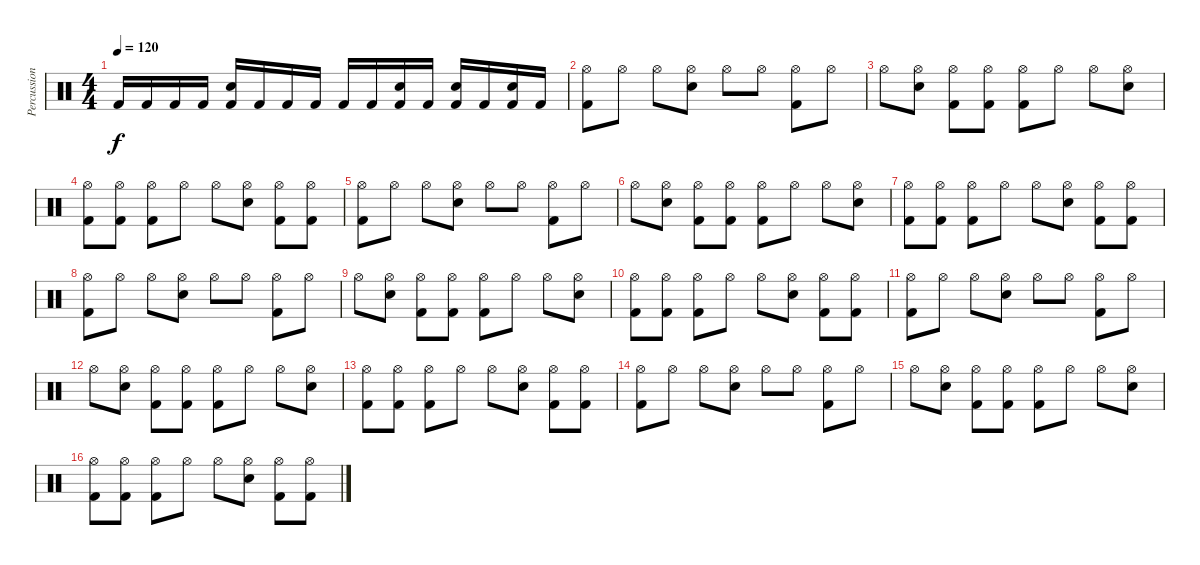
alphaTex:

\track ("Percussion" "Percussion") {instrument percussion}
\staff {score}
\articulation defaults
\ts (4 4)
\tempo 120
\clef neutral
\ks c "Kick (hit) 2".16{dy f} "Kick (hit) 2".16 "Kick (hit) 2".16 "Kick (hit) 2".16
("Electric Snare (hit)" "Kick (hit) 2").16 "Kick (hit) 2".16 "Kick (hit) 2".16 "Kick (hit) 2".16 "Kick (hit) 2".16 "Kick (hit) 2".16 ("Electric Snare (hit)" "Kick (hit) 2").16 "Kick (hit) 2".16 ("Electric Snare (hit)" "Kick (hit) 2").16 "Kick (hit) 2".16 ("Electric Snare (hit)" "Kick (hit) 2").16 "Kick (hit) 2".16 |
("Hi-Hat (open)" "Kick (hit) 2").8 "Hi-Hat (open)".8 "Hi-Hat (open)".8 ("Hi-Hat (open)" "Electric Snare (hit)").8 "Hi-Hat (open)".8 "Hi-Hat (open)".8 ("Hi-Hat (open)" "Kick (hit) 2").8 "Hi-Hat (open)".8 |
"Hi-Hat (open)".8 ("Hi-Hat (open)" "Electric Snare (hit)").8 ("Hi-Hat (open)" "Kick (hit) 2").8 ("Hi-Hat (open)" "Kick (hit) 2").8 ("Hi-Hat (open)" "Kick (hit) 2").8 "Hi-Hat (open)".8 "Hi-Hat (open)".8 ("Hi-Hat (open)" "Electric Snare (hit)").8 |
("Hi-Hat (open)" "Kick (hit) 2").8 ("Hi-Hat (open)" "Kick (hit) 2").8 ("Hi-Hat (open)" "Kick (hit) 2").8 "Hi-Hat (open)".8 "Hi-Hat (open)".8 ("Hi-Hat (open)" "Electric Snare (hit)").8 ("Hi-Hat (open)" "Kick (hit) 2").8 ("Hi-Hat (open)" "Kick (hit) 2").8 |
("Hi-Hat (open)" "Kick (hit) 2").8 "Hi-Hat (open)".8 "Hi-Hat (open)".8 ("Hi-Hat (open)" "Electric Snare (hit)").8 "Hi-Hat (open)".8 "Hi-Hat (open)".8 ("Hi-Hat (open)" "Kick (hit) 2").8 "Hi-Hat (open)".8 |
"Hi-Hat (open)".8 ("Hi-Hat (open)" "Electric Snare (hit)").8 ("Hi-Hat (open)" "Kick (hit) 2").8 ("Hi-Hat (open)" "Kick (hit) 2").8 ("Hi-Hat (open)" "Kick (hit) 2").8 "Hi-Hat (open)".8 "Hi-Hat (open)".8 ("Hi-Hat (open)" "Electric Snare (hit)").8 |
("Hi-Hat (open)" "Kick (hit) 2").8 ("Hi-Hat (open)" "Kick (hit) 2").8 ("Hi-Hat (open)" "Kick (hit) 2").8 "Hi-Hat (open)".8 "Hi-Hat (open)".8 ("Hi-Hat (open)" "Electric Snare (hit)").8 ("Hi-Hat (open)" "Kick (hit) 2").8 ("Hi-Hat (open)" "Kick (hit) 2").8 |
("Hi-Hat (open)" "Kick (hit) 2").8 "Hi-Hat (open)".8 "Hi-Hat (open)".8 ("Hi-Hat (open)" "Electric Snare (hit)").8 "Hi-Hat (open)".8 "Hi-Hat (open)".8 ("Hi-Hat (open)" "Kick (hit) 2").8 "Hi-Hat (open)".8 |
"Hi-Hat (open)".8 ("Hi-Hat (open)" "Electric Snare (hit)").8 ("Hi-Hat (open)" "Kick (hit) 2").8 ("Hi-Hat (open)" "Kick (hit) 2").8 ("Hi-Hat (open)" "Kick (hit) 2").8 "Hi-Hat (open)".8 "Hi-Hat (open)".8 ("Hi-Hat (open)" "Electric Snare (hit)").8 |
("Hi-Hat (open)" "Kick (hit) 2").8 ("Hi-Hat (open)" "Kick (hit) 2").8 ("Hi-Hat (open)" "Kick (hit) 2").8 "Hi-Hat (open)".8 "Hi-Hat (open)".8 ("Hi-Hat (open)" "Electric Snare (hit)").8 ("Hi-Hat (open)" "Kick (hit) 2").8 ("Hi-Hat (open)" "Kick (hit) 2").8 |
("Hi-Hat (open)" "Kick (hit) 2").8 "Hi-Hat (open)".8 "Hi-Hat (open)".8 ("Hi-Hat (open)" "Electric Snare (hit)").8 "Hi-Hat (open)".8 "Hi-Hat (open)".8 ("Hi-Hat (open)" "Kick (hit) 2").8 "Hi-Hat (open)".8 |
"Hi-Hat (open)".8 ("Hi-Hat (open)" "Electric Snare (hit)").8 ("Hi-Hat (open)" "Kick (hit) 2").8 ("Hi-Hat (open)" "Kick (hit) 2").8 ("Hi-Hat (open)" "Kick (hit) 2").8 "Hi-Hat (open)".8 "Hi-Hat (open)".8 ("Hi-Hat (open)" "Electric Snare (hit)").8 |
("Hi-Hat (open)" "Kick (hit) 2").8 ("Hi-Hat (open)" "Kick (hit) 2").8 ("Hi-Hat (open)" "Kick (hit) 2").8 "Hi-Hat (open)".8 "Hi-Hat (open)".8 ("Hi-Hat (open)" "Electric Snare (hit)").8 ("Hi-Hat (open)" "Kick (hit) 2").8 ("Hi-Hat (open)" "Kick (hit) 2").8 |
("Hi-Hat (open)" "Kick (hit) 2").8 "Hi-Hat (open)".8 "Hi-Hat (open)".8 ("Hi-Hat (open)" "Electric Snare (hit)").8 "Hi-Hat (open)".8 "Hi-Hat (open)".8 ("Hi-Hat (open)" "Kick (hit) 2").8 "Hi-Hat (open)".8 |
"Hi-Hat (open)".8 ("Hi-Hat (open)" "Electric Snare (hit)").8 ("Hi-Hat (open)" "Kick (hit) 2").8 ("Hi-Hat (open)" "Kick (hit) 2").8 ("Hi-Hat (open)" "Kick (hit) 2").8 "Hi-Hat (open)".8 "Hi-Hat (open)".8 ("Hi-Hat (open)" "Electric Snare (hit)").8 |
("Hi-Hat (open)" "Kick (hit) 2").8 ("Hi-Hat (open)" "Kick (hit) 2").8 ("Hi-Hat (open)" "Kick (hit) 2").8 "Hi-Hat (open)".8 "Hi-Hat (open)".8 ("Hi-Hat (open)" "Electric Snare (hit)").8 ("Hi-Hat (open)" "Kick (hit) 2").8 ("Hi-Hat (open)" "Kick (hit) 2").8
